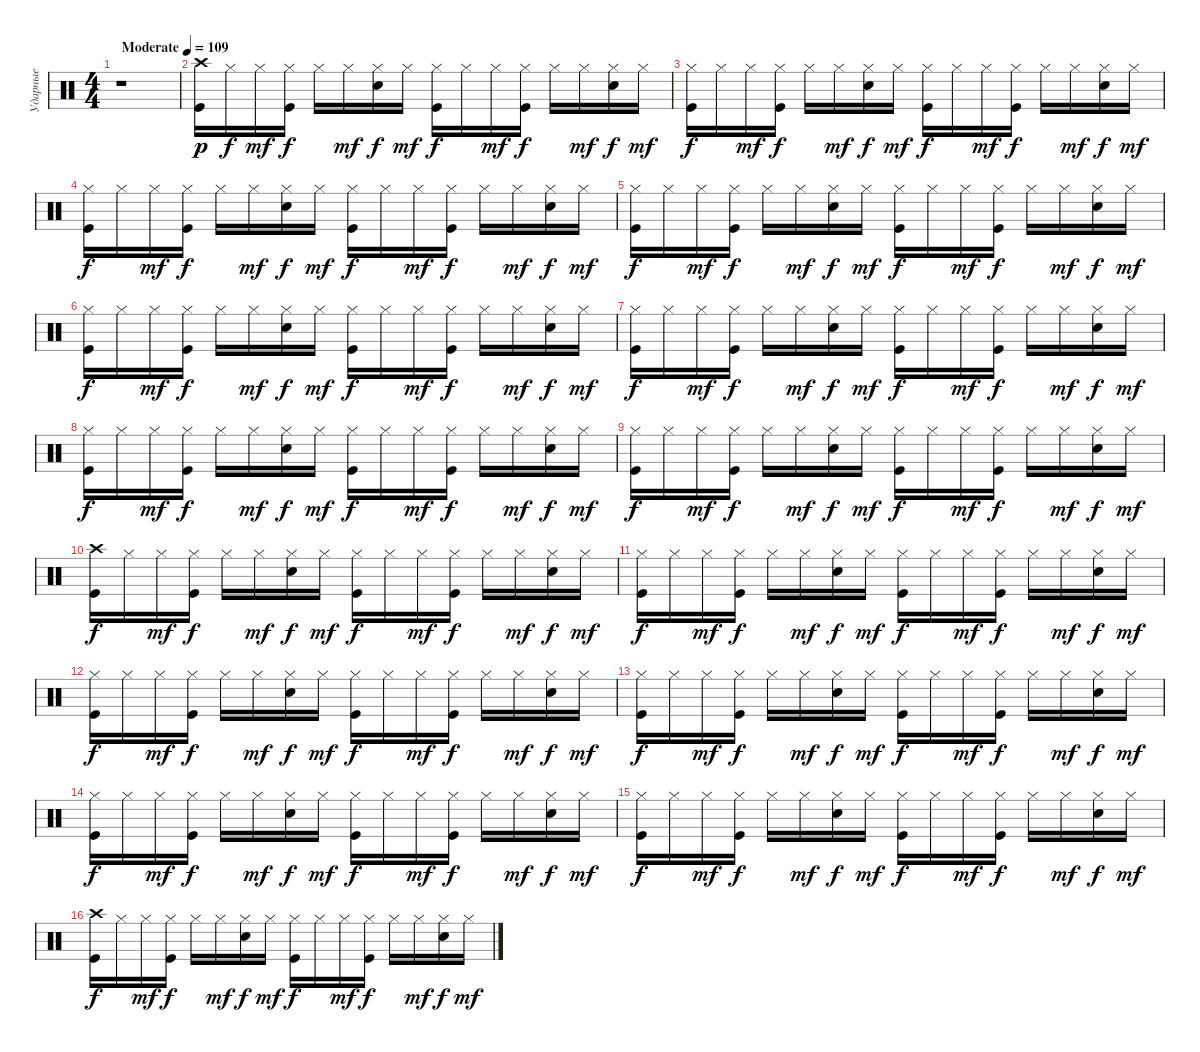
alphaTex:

\track ("Ударные" "Ударные") {instrument percussion}
\staff {score}
\articulation defaults
\ts (4 4)
\tempo (109 "Moderate")
\clef neutral
\ks c
r.1{dy p} |
("Crash high (hit)" "Kick (hit)").16 "Hi-Hat (closed)".16{dy f} "Hi-Hat (closed)".16{dy mf} ("Hi-Hat (closed)" "Kick (hit)").16{dy f} "Hi-Hat (closed)".16 "Hi-Hat (closed)".16{dy mf} ("Hi-Hat (closed)" "Electric Snare (hit)").16{dy f} "Hi-Hat (closed)".16{dy mf} ("Kick (hit)" "Hi-Hat (closed)").16{dy f} "Hi-Hat (closed)".16 "Hi-Hat (closed)".16{dy mf} ("Hi-Hat (closed)" "Kick (hit)").16{dy f} "Hi-Hat (closed)".16 "Hi-Hat (closed)".16{dy mf} ("Hi-Hat (closed)" "Electric Snare (hit)").16{dy f} "Hi-Hat (closed)".16{dy mf} |
("Kick (hit)" "Hi-Hat (closed)").16{dy f} "Hi-Hat (closed)".16 "Hi-Hat (closed)".16{dy mf} ("Kick (hit)" "Hi-Hat (closed)").16{dy f} "Hi-Hat (closed)".16 "Hi-Hat (closed)".16{dy mf} ("Electric Snare (hit)" "Hi-Hat (closed)").16{dy f} "Hi-Hat (closed)".16{dy mf} ("Hi-Hat (closed)" "Kick (hit)").16{dy f} "Hi-Hat (closed)".16 "Hi-Hat (closed)".16{dy mf} ("Kick (hit)" "Hi-Hat (closed)").16{dy f} "Hi-Hat (closed)".16 "Hi-Hat (closed)".16{dy mf} ("Electric Snare (hit)" "Hi-Hat (closed)").16{dy f} "Hi-Hat (closed)".16{dy mf} |
("Hi-Hat (closed)" "Kick (hit)").16{dy f} "Hi-Hat (closed)".16 "Hi-Hat (closed)".16{dy mf} ("Kick (hit)" "Hi-Hat (closed)").16{dy f} "Hi-Hat (closed)".16 "Hi-Hat (closed)".16{dy mf} ("Electric Snare (hit)" "Hi-Hat (closed)").16{dy f} "Hi-Hat (closed)".16{dy mf} ("Kick (hit)" "Hi-Hat (closed)").16{dy f} "Hi-Hat (closed)".16 "Hi-Hat (closed)".16{dy mf} ("Hi-Hat (closed)" "Kick (hit)").16{dy f} "Hi-Hat (closed)".16 "Hi-Hat (closed)".16{dy mf} ("Hi-Hat (closed)" "Electric Snare (hit)").16{dy f} "Hi-Hat (closed)".16{dy mf} |
("Kick (hit)" "Hi-Hat (closed)").16{dy f} "Hi-Hat (closed)".16 "Hi-Hat (closed)".16{dy mf} ("Hi-Hat (closed)" "Kick (hit)").16{dy f} "Hi-Hat (closed)".16 "Hi-Hat (closed)".16{dy mf} ("Hi-Hat (closed)" "Electric Snare (hit)").16{dy f} "Hi-Hat (closed)".16{dy mf} ("Hi-Hat (closed)" "Kick (hit)").16{dy f} "Hi-Hat (closed)".16 "Hi-Hat (closed)".16{dy mf} ("Kick (hit)" "Hi-Hat (closed)").16{dy f} "Hi-Hat (closed)".16 "Hi-Hat (closed)".16{dy mf} ("Hi-Hat (closed)" "Electric Snare (hit)").16{dy f} "Hi-Hat (closed)".16{dy mf} |
("Kick (hit)" "Hi-Hat (closed)").16{dy f} "Hi-Hat (closed)".16 "Hi-Hat (closed)".16{dy mf} ("Hi-Hat (closed)" "Kick (hit)").16{dy f} "Hi-Hat (closed)".16 "Hi-Hat (closed)".16{dy mf} ("Hi-Hat (closed)" "Electric Snare (hit)").16{dy f} "Hi-Hat (closed)".16{dy mf} ("Kick (hit)" "Hi-Hat (closed)").16{dy f} "Hi-Hat (closed)".16 "Hi-Hat (closed)".16{dy mf} ("Kick (hit)" "Hi-Hat (closed)").16{dy f} "Hi-Hat (closed)".16 "Hi-Hat (closed)".16{dy mf} ("Electric Snare (hit)" "Hi-Hat (closed)").16{dy f} "Hi-Hat (closed)".16{dy mf} |
("Hi-Hat (closed)" "Kick (hit)").16{dy f} "Hi-Hat (closed)".16 "Hi-Hat (closed)".16{dy mf} ("Kick (hit)" "Hi-Hat (closed)").16{dy f} "Hi-Hat (closed)".16 "Hi-Hat (closed)".16{dy mf} ("Electric Snare (hit)" "Hi-Hat (closed)").16{dy f} "Hi-Hat (closed)".16{dy mf} ("Hi-Hat (closed)" "Kick (hit)").16{dy f} "Hi-Hat (closed)".16 "Hi-Hat (closed)".16{dy mf} ("Hi-Hat (closed)" "Kick (hit)").16{dy f} "Hi-Hat (closed)".16 "Hi-Hat (closed)".16{dy mf} ("Electric Snare (hit)" "Hi-Hat (closed)").16{dy f} "Hi-Hat (closed)".16{dy mf} |
("Kick (hit)" "Hi-Hat (closed)").16{dy f} "Hi-Hat (closed)".16 "Hi-Hat (closed)".16{dy mf} ("Kick (hit)" "Hi-Hat (closed)").16{dy f} "Hi-Hat (closed)".16 "Hi-Hat (closed)".16{dy mf} ("Electric Snare (hit)" "Hi-Hat (closed)").16{dy f} "Hi-Hat (closed)".16{dy mf} ("Kick (hit)" "Hi-Hat (closed)").16{dy f} "Hi-Hat (closed)".16 "Hi-Hat (closed)".16{dy mf} ("Kick (hit)" "Hi-Hat (closed)").16{dy f} "Hi-Hat (closed)".16 "Hi-Hat (closed)".16{dy mf} ("Electric Snare (hit)" "Hi-Hat (closed)").16{dy f} "Hi-Hat (closed)".16{dy mf} |
("Hi-Hat (closed)" "Kick (hit)").16{dy f} "Hi-Hat (closed)".16 "Hi-Hat (closed)".16{dy mf} ("Kick (hit)" "Hi-Hat (closed)").16{dy f} "Hi-Hat (closed)".16 "Hi-Hat (closed)".16{dy mf} ("Electric Snare (hit)" "Hi-Hat (closed)").16{dy f} "Hi-Hat (closed)".16{dy mf} ("Hi-Hat (closed)" "Kick (hit)").16{dy f} "Hi-Hat (closed)".16 "Hi-Hat (closed)".16{dy mf} ("Kick (hit)" "Hi-Hat (closed)").16{dy f} "Hi-Hat (closed)".16 "Hi-Hat (closed)".16{dy mf} ("Hi-Hat (closed)" "Electric Snare (hit)").16{dy f} "Hi-Hat (closed)".16{dy mf} |
("Crash high (hit)" "Kick (hit)").16{dy f} "Hi-Hat (closed)".16 "Hi-Hat (closed)".16{dy mf} ("Kick (hit)" "Hi-Hat (closed)").16{dy f} "Hi-Hat (closed)".16 "Hi-Hat (closed)".16{dy mf} ("Hi-Hat (closed)" "Electric Snare (hit)").16{dy f} "Hi-Hat (closed)".16{dy mf} ("Hi-Hat (closed)" "Kick (hit)").16{dy f} "Hi-Hat (closed)".16 "Hi-Hat (closed)".16{dy mf} ("Hi-Hat (closed)" "Kick (hit)").16{dy f} "Hi-Hat (closed)".16 "Hi-Hat (closed)".16{dy mf} ("Electric Snare (hit)" "Hi-Hat (closed)").16{dy f} "Hi-Hat (closed)".16{dy mf} |
("Hi-Hat (closed)" "Kick (hit)").16{dy f} "Hi-Hat (closed)".16 "Hi-Hat (closed)".16{dy mf} ("Kick (hit)" "Hi-Hat (closed)").16{dy f} "Hi-Hat (closed)".16 "Hi-Hat (closed)".16{dy mf} ("Electric Snare (hit)" "Hi-Hat (closed)").16{dy f} "Hi-Hat (closed)".16{dy mf} ("Hi-Hat (closed)" "Kick (hit)").16{dy f} "Hi-Hat (closed)".16 "Hi-Hat (closed)".16{dy mf} ("Kick (hit)" "Hi-Hat (closed)").16{dy f} "Hi-Hat (closed)".16 "Hi-Hat (closed)".16{dy mf} ("Hi-Hat (closed)" "Electric Snare (hit)").16{dy f} "Hi-Hat (closed)".16{dy mf} |
("Hi-Hat (closed)" "Kick (hit)").16{dy f} "Hi-Hat (closed)".16 "Hi-Hat (closed)".16{dy mf} ("Kick (hit)" "Hi-Hat (closed)").16{dy f} "Hi-Hat (closed)".16 "Hi-Hat (closed)".16{dy mf} ("Electric Snare (hit)" "Hi-Hat (closed)").16{dy f} "Hi-Hat (closed)".16{dy mf} ("Kick (hit)" "Hi-Hat (closed)").16{dy f} "Hi-Hat (closed)".16 "Hi-Hat (closed)".16{dy mf} ("Kick (hit)" "Hi-Hat (closed)").16{dy f} "Hi-Hat (closed)".16 "Hi-Hat (closed)".16{dy mf} ("Electric Snare (hit)" "Hi-Hat (closed)").16{dy f} "Hi-Hat (closed)".16{dy mf} |
("Kick (hit)" "Hi-Hat (closed)").16{dy f} "Hi-Hat (closed)".16 "Hi-Hat (closed)".16{dy mf} ("Hi-Hat (closed)" "Kick (hit)").16{dy f} "Hi-Hat (closed)".16 "Hi-Hat (closed)".16{dy mf} ("Hi-Hat (closed)" "Electric Snare (hit)").16{dy f} "Hi-Hat (closed)".16{dy mf} ("Hi-Hat (closed)" "Kick (hit)").16{dy f} "Hi-Hat (closed)".16 "Hi-Hat (closed)".16{dy mf} ("Hi-Hat (closed)" "Kick (hit)").16{dy f} "Hi-Hat (closed)".16 "Hi-Hat (closed)".16{dy mf} ("Hi-Hat (closed)" "Electric Snare (hit)").16{dy f} "Hi-Hat (closed)".16{dy mf} |
("Hi-Hat (closed)" "Kick (hit)").16{dy f} "Hi-Hat (closed)".16 "Hi-Hat (closed)".16{dy mf} ("Hi-Hat (closed)" "Kick (hit)").16{dy f} "Hi-Hat (closed)".16 "Hi-Hat (closed)".16{dy mf} ("Hi-Hat (closed)" "Electric Snare (hit)").16{dy f} "Hi-Hat (closed)".16{dy mf} ("Hi-Hat (closed)" "Kick (hit)").16{dy f} "Hi-Hat (closed)".16 "Hi-Hat (closed)".16{dy mf} ("Kick (hit)" "Hi-Hat (closed)").16{dy f} "Hi-Hat (closed)".16 "Hi-Hat (closed)".16{dy mf} ("Hi-Hat (closed)" "Electric Snare (hit)").16{dy f} "Hi-Hat (closed)".16{dy mf} |
("Hi-Hat (closed)" "Kick (hit)").16{dy f} "Hi-Hat (closed)".16 "Hi-Hat (closed)".16{dy mf} ("Hi-Hat (closed)" "Kick (hit)").16{dy f} "Hi-Hat (closed)".16 "Hi-Hat (closed)".16{dy mf} ("Electric Snare (hit)" "Hi-Hat (closed)").16{dy f} "Hi-Hat (closed)".16{dy mf} ("Kick (hit)" "Hi-Hat (closed)").16{dy f} "Hi-Hat (closed)".16 "Hi-Hat (closed)".16{dy mf} ("Kick (hit)" "Hi-Hat (closed)").16{dy f} "Hi-Hat (closed)".16 "Hi-Hat (closed)".16{dy mf} ("Hi-Hat (closed)" "Electric Snare (hit)").16{dy f} "Hi-Hat (closed)".16{dy mf} |
("Crash high (hit)" "Kick (hit)").16{dy f} "Hi-Hat (closed)".16 "Hi-Hat (closed)".16{dy mf} ("Hi-Hat (closed)" "Kick (hit)").16{dy f} "Hi-Hat (closed)".16 "Hi-Hat (closed)".16{dy mf} ("Hi-Hat (closed)" "Electric Snare (hit)").16{dy f} "Hi-Hat (closed)".16{dy mf} ("Kick (hit)" "Hi-Hat (closed)").16{dy f} "Hi-Hat (closed)".16 "Hi-Hat (closed)".16{dy mf} ("Kick (hit)" "Hi-Hat (closed)").16{dy f} "Hi-Hat (closed)".16 "Hi-Hat (closed)".16{dy mf} ("Hi-Hat (closed)" "Electric Snare (hit)").16{dy f} "Hi-Hat (closed)".16{dy mf}
